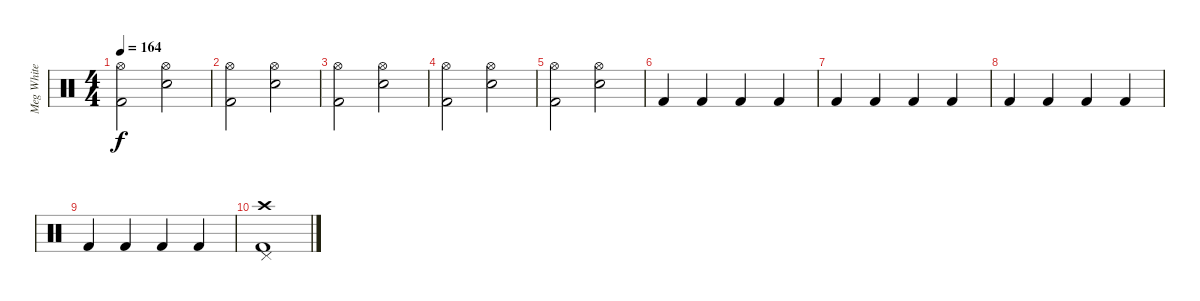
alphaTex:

\track ("Meg White" "Meg White") {instrument percussion}
\staff {score}
\articulation defaults
\ts (4 4)
\tempo 164
\clef neutral
\ks c
("Hi-Hat (open)" "Kick (hit) 2").2{dy f} ("Hi-Hat (open)" "Snare (hit) 2").2 |
("Hi-Hat (open)" "Kick (hit) 2").2 ("Hi-Hat (open)" "Snare (hit) 2").2 |
("Hi-Hat (open)" "Kick (hit) 2").2 ("Hi-Hat (open)" "Snare (hit) 2").2 |
("Hi-Hat (open)" "Kick (hit) 2").2 ("Hi-Hat (open)" "Snare (hit) 2").2 |
("Hi-Hat (open)" "Kick (hit) 2").2 ("Hi-Hat (open)" "Snare (hit) 2").2 |
"Kick (hit) 2".4 "Kick (hit) 2".4 "Kick (hit) 2".4 "Kick (hit) 2".4 |
"Kick (hit) 2".4 "Kick (hit) 2".4 "Kick (hit) 2".4 "Kick (hit) 2".4 |
"Kick (hit) 2".4 "Kick (hit) 2".4 "Kick (hit) 2".4 "Kick (hit) 2".4 |
"Kick (hit) 2".4 "Kick (hit) 2".4 "Kick (hit) 2".4 "Kick (hit) 2".4 |
("Crash high (hit)" "Kick (hit) 2" "Pedal Hi-Hat (hit)").1
